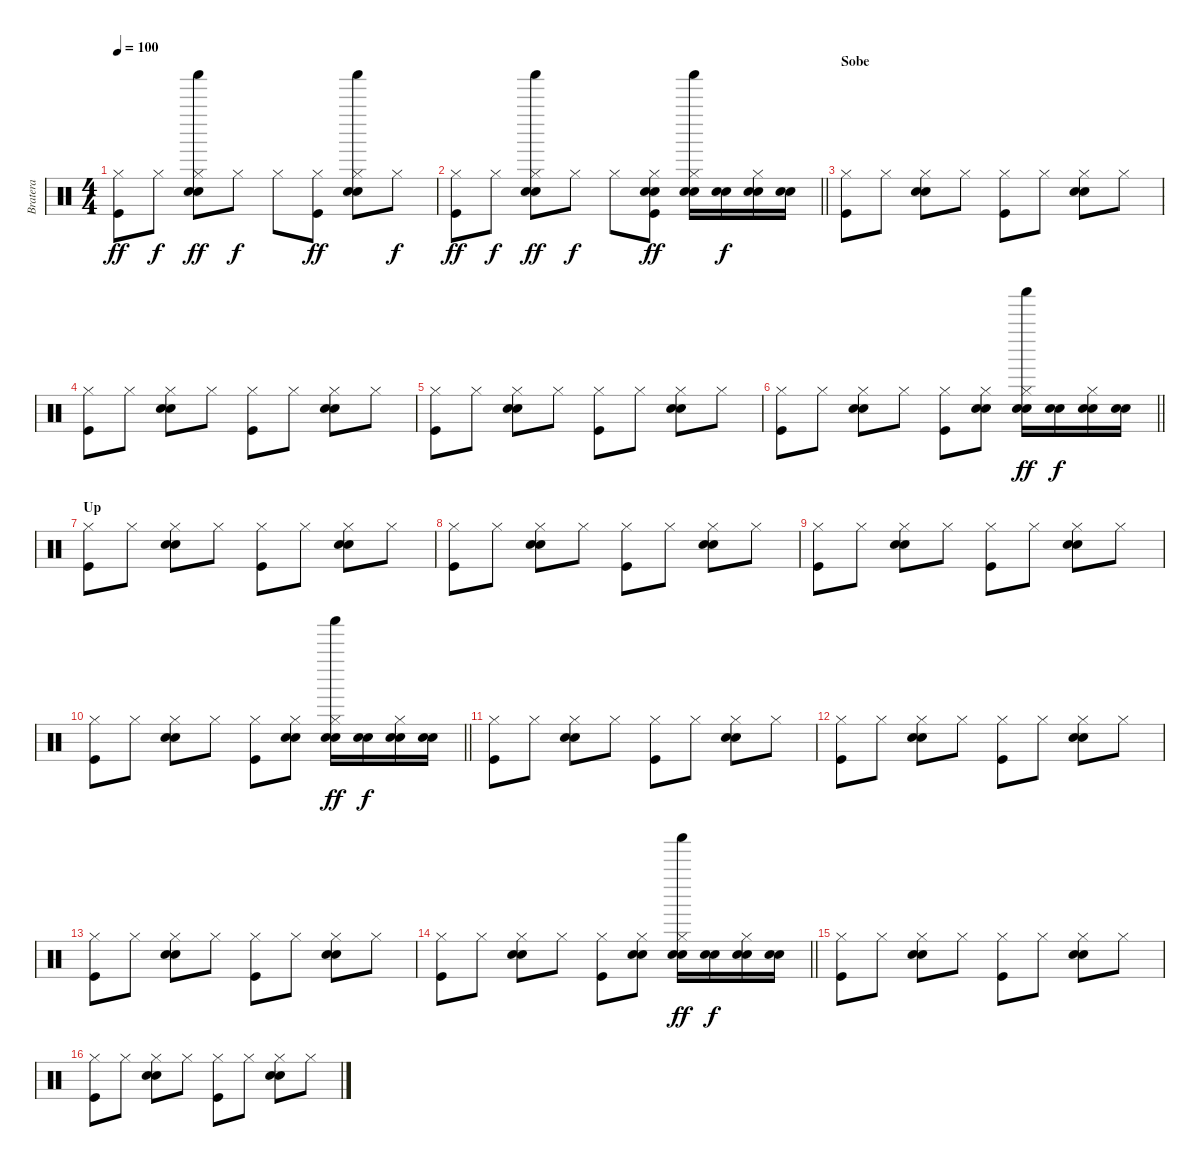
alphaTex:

\track ("Bratera" "Bratera") {instrument percussion}
\staff {score}
\articulation defaults
\ts (4 4)
\tempo 100
\clef neutral
\ks c
("Hi-Hat (closed)" "Kick (hit)").8{dy ff} "Hi-Hat (closed)".8{dy f} ("Hi-Hat (closed)" "Shaker (hit)" "Snare (hit) 2" "Electric Snare (hit)").8{dy ff} "Hi-Hat (closed)".8{dy f} "Hi-Hat (closed)".8 ("Hi-Hat (closed)" "Kick (hit)").8{dy ff} ("Hi-Hat (closed)" "Shaker (hit)" "Snare (hit) 2" "Electric Snare (hit)").8 "Hi-Hat (closed)".8{dy f} |
\barLineRight lightlight
("Hi-Hat (closed)" "Kick (hit)").8{dy ff} "Hi-Hat (closed)".8{dy f} ("Hi-Hat (closed)" "Shaker (hit)" "Snare (hit) 2" "Electric Snare (hit)").8{dy ff} "Hi-Hat (closed)".8{dy f} "Hi-Hat (closed)".8 ("Hi-Hat (closed)" "Snare (hit) 2" "Electric Snare (hit)" "Kick (hit)").8{dy ff} ("Hi-Hat (closed)" "Shaker (hit)" "Snare (hit) 2" "Electric Snare (hit)").16 ("Snare (hit) 2" "Electric Snare (hit)").16{dy f} ("Hi-Hat (closed)" "Snare (hit) 2" "Electric Snare (hit)").16 ("Snare (hit) 2" "Electric Snare (hit)").16 |
\section ("" "Sobe")
("Hi-Hat (closed)" "Kick (hit)").8 "Hi-Hat (closed)".8 ("Hi-Hat (closed)" "Snare (hit) 2" "Electric Snare (hit)").8 "Hi-Hat (closed)".8 ("Hi-Hat (closed)" "Kick (hit)").8 "Hi-Hat (closed)".8 ("Hi-Hat (closed)" "Snare (hit) 2" "Electric Snare (hit)").8 "Hi-Hat (closed)".8 |
("Hi-Hat (closed)" "Kick (hit)").8 "Hi-Hat (closed)".8 ("Hi-Hat (closed)" "Snare (hit) 2" "Electric Snare (hit)").8 "Hi-Hat (closed)".8 ("Hi-Hat (closed)" "Kick (hit)").8 "Hi-Hat (closed)".8 ("Hi-Hat (closed)" "Snare (hit) 2" "Electric Snare (hit)").8 "Hi-Hat (closed)".8 |
("Hi-Hat (closed)" "Kick (hit)").8 "Hi-Hat (closed)".8 ("Hi-Hat (closed)" "Snare (hit) 2" "Electric Snare (hit)").8 "Hi-Hat (closed)".8 ("Hi-Hat (closed)" "Kick (hit)").8 "Hi-Hat (closed)".8 ("Hi-Hat (closed)" "Snare (hit) 2" "Electric Snare (hit)").8 "Hi-Hat (closed)".8 |
\barLineRight lightlight
("Hi-Hat (closed)" "Kick (hit)").8 "Hi-Hat (closed)".8 ("Hi-Hat (closed)" "Snare (hit) 2" "Electric Snare (hit)").8 "Hi-Hat (closed)".8 ("Hi-Hat (closed)" "Kick (hit)").8 ("Hi-Hat (closed)" "Snare (hit) 2" "Electric Snare (hit)").8 ("Hi-Hat (closed)" "Shaker (hit)" "Snare (hit) 2" "Electric Snare (hit)").16{dy ff} ("Snare (hit) 2" "Electric Snare (hit)").16{dy f} ("Hi-Hat (closed)" "Snare (hit) 2" "Electric Snare (hit)").16 ("Snare (hit) 2" "Electric Snare (hit)").16 |
\section ("" "Up")
("Hi-Hat (closed)" "Kick (hit)").8 "Hi-Hat (closed)".8 ("Hi-Hat (closed)" "Snare (hit) 2" "Electric Snare (hit)").8 "Hi-Hat (closed)".8 ("Hi-Hat (closed)" "Kick (hit)").8 "Hi-Hat (closed)".8 ("Hi-Hat (closed)" "Snare (hit) 2" "Electric Snare (hit)").8 "Hi-Hat (closed)".8 |
("Hi-Hat (closed)" "Kick (hit)").8 "Hi-Hat (closed)".8 ("Hi-Hat (closed)" "Snare (hit) 2" "Electric Snare (hit)").8 "Hi-Hat (closed)".8 ("Hi-Hat (closed)" "Kick (hit)").8 "Hi-Hat (closed)".8 ("Hi-Hat (closed)" "Snare (hit) 2" "Electric Snare (hit)").8 "Hi-Hat (closed)".8 |
("Hi-Hat (closed)" "Kick (hit)").8 "Hi-Hat (closed)".8 ("Hi-Hat (closed)" "Snare (hit) 2" "Electric Snare (hit)").8 "Hi-Hat (closed)".8 ("Hi-Hat (closed)" "Kick (hit)").8 "Hi-Hat (closed)".8 ("Hi-Hat (closed)" "Snare (hit) 2" "Electric Snare (hit)").8 "Hi-Hat (closed)".8 |
\barLineRight lightlight
("Hi-Hat (closed)" "Kick (hit)").8 "Hi-Hat (closed)".8 ("Hi-Hat (closed)" "Snare (hit) 2" "Electric Snare (hit)").8 "Hi-Hat (closed)".8 ("Hi-Hat (closed)" "Kick (hit)").8 ("Hi-Hat (closed)" "Snare (hit) 2" "Electric Snare (hit)").8 ("Hi-Hat (closed)" "Shaker (hit)" "Snare (hit) 2" "Electric Snare (hit)").16{dy ff} ("Snare (hit) 2" "Electric Snare (hit)").16{dy f} ("Hi-Hat (closed)" "Snare (hit) 2" "Electric Snare (hit)").16 ("Snare (hit) 2" "Electric Snare (hit)").16 |
("Hi-Hat (closed)" "Kick (hit)").8 "Hi-Hat (closed)".8 ("Hi-Hat (closed)" "Snare (hit) 2" "Electric Snare (hit)").8 "Hi-Hat (closed)".8 ("Hi-Hat (closed)" "Kick (hit)").8 "Hi-Hat (closed)".8 ("Hi-Hat (closed)" "Snare (hit) 2" "Electric Snare (hit)").8 "Hi-Hat (closed)".8 |
("Hi-Hat (closed)" "Kick (hit)").8 "Hi-Hat (closed)".8 ("Hi-Hat (closed)" "Snare (hit) 2" "Electric Snare (hit)").8 "Hi-Hat (closed)".8 ("Hi-Hat (closed)" "Kick (hit)").8 "Hi-Hat (closed)".8 ("Hi-Hat (closed)" "Snare (hit) 2" "Electric Snare (hit)").8 "Hi-Hat (closed)".8 |
("Hi-Hat (closed)" "Kick (hit)").8 "Hi-Hat (closed)".8 ("Hi-Hat (closed)" "Snare (hit) 2" "Electric Snare (hit)").8 "Hi-Hat (closed)".8 ("Hi-Hat (closed)" "Kick (hit)").8 "Hi-Hat (closed)".8 ("Hi-Hat (closed)" "Snare (hit) 2" "Electric Snare (hit)").8 "Hi-Hat (closed)".8 |
\barLineRight lightlight
("Hi-Hat (closed)" "Kick (hit)").8 "Hi-Hat (closed)".8 ("Hi-Hat (closed)" "Snare (hit) 2" "Electric Snare (hit)").8 "Hi-Hat (closed)".8 ("Hi-Hat (closed)" "Kick (hit)").8 ("Hi-Hat (closed)" "Snare (hit) 2" "Electric Snare (hit)").8 ("Hi-Hat (closed)" "Shaker (hit)" "Snare (hit) 2" "Electric Snare (hit)").16{dy ff} ("Snare (hit) 2" "Electric Snare (hit)").16{dy f} ("Hi-Hat (closed)" "Snare (hit) 2" "Electric Snare (hit)").16 ("Snare (hit) 2" "Electric Snare (hit)").16 |
("Hi-Hat (closed)" "Kick (hit)").8 "Hi-Hat (closed)".8 ("Hi-Hat (closed)" "Snare (hit) 2" "Electric Snare (hit)").8 "Hi-Hat (closed)".8 ("Hi-Hat (closed)" "Kick (hit)").8 "Hi-Hat (closed)".8 ("Hi-Hat (closed)" "Snare (hit) 2" "Electric Snare (hit)").8 "Hi-Hat (closed)".8 |
("Hi-Hat (closed)" "Kick (hit)").8 "Hi-Hat (closed)".8 ("Hi-Hat (closed)" "Snare (hit) 2" "Electric Snare (hit)").8 "Hi-Hat (closed)".8 ("Hi-Hat (closed)" "Kick (hit)").8 "Hi-Hat (closed)".8 ("Hi-Hat (closed)" "Snare (hit) 2" "Electric Snare (hit)").8 "Hi-Hat (closed)".8
